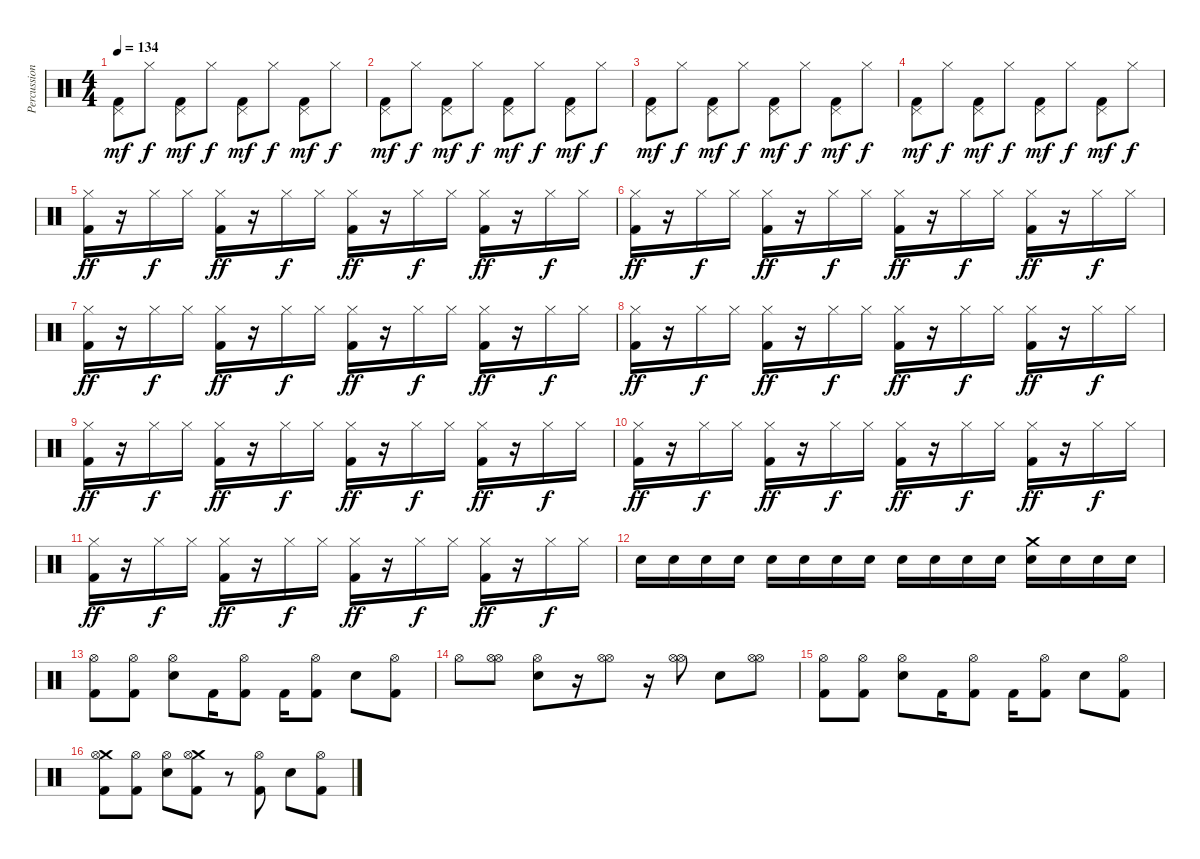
\track ("Percussion" "Percussion") {instrument percussion}
\staff {score}
\articulation defaults
\ts (4 4)
\tempo 134
\clef neutral
\ks c
("Kick (hit) 2" "Pedal Hi-Hat (hit)").8{dy mf} "Hi-Hat (closed)".8{dy f} ("Kick (hit) 2" "Pedal Hi-Hat (hit)").8{dy mf} "Hi-Hat (closed)".8{dy f} ("Kick (hit) 2" "Pedal Hi-Hat (hit)").8{dy mf} "Hi-Hat (closed)".8{dy f} ("Kick (hit) 2" "Pedal Hi-Hat (hit)").8{dy mf} "Hi-Hat (closed)".8{dy f} |
("Kick (hit) 2" "Pedal Hi-Hat (hit)").8{dy mf} "Hi-Hat (closed)".8{dy f} ("Kick (hit) 2" "Pedal Hi-Hat (hit)").8{dy mf} "Hi-Hat (closed)".8{dy f} ("Kick (hit) 2" "Pedal Hi-Hat (hit)").8{dy mf} "Hi-Hat (closed)".8{dy f} ("Kick (hit) 2" "Pedal Hi-Hat (hit)").8{dy mf} "Hi-Hat (closed)".8{dy f} |
("Kick (hit) 2" "Pedal Hi-Hat (hit)").8{dy mf} "Hi-Hat (closed)".8{dy f} ("Kick (hit) 2" "Pedal Hi-Hat (hit)").8{dy mf} "Hi-Hat (closed)".8{dy f} ("Kick (hit) 2" "Pedal Hi-Hat (hit)").8{dy mf} "Hi-Hat (closed)".8{dy f} ("Kick (hit) 2" "Pedal Hi-Hat (hit)").8{dy mf} "Hi-Hat (closed)".8{dy f} |
("Kick (hit) 2" "Pedal Hi-Hat (hit)").8{dy mf} "Hi-Hat (closed)".8{dy f} ("Kick (hit) 2" "Pedal Hi-Hat (hit)").8{dy mf} "Hi-Hat (closed)".8{dy f} ("Kick (hit) 2" "Pedal Hi-Hat (hit)").8{dy mf} "Hi-Hat (closed)".8{dy f} ("Kick (hit) 2" "Pedal Hi-Hat (hit)").8{dy mf} "Hi-Hat (closed)".8{dy f} |
("Kick (hit) 2" "Hi-Hat (closed)").16{dy ff} r.16 "Hi-Hat (closed)".16{dy f} "Hi-Hat (closed)".16 ("Kick (hit) 2" "Hi-Hat (closed)").16{dy ff} r.16 "Hi-Hat (closed)".16{dy f} "Hi-Hat (closed)".16 ("Kick (hit) 2" "Hi-Hat (closed)").16{dy ff} r.16 "Hi-Hat (closed)".16{dy f} "Hi-Hat (closed)".16 ("Kick (hit) 2" "Hi-Hat (closed)").16{dy ff} r.16 "Hi-Hat (closed)".16{dy f} "Hi-Hat (closed)".16 |
("Kick (hit) 2" "Hi-Hat (closed)").16{dy ff} r.16 "Hi-Hat (closed)".16{dy f} "Hi-Hat (closed)".16 ("Kick (hit) 2" "Hi-Hat (closed)").16{dy ff} r.16 "Hi-Hat (closed)".16{dy f} "Hi-Hat (closed)".16 ("Kick (hit) 2" "Hi-Hat (closed)").16{dy ff} r.16 "Hi-Hat (closed)".16{dy f} "Hi-Hat (closed)".16 ("Kick (hit) 2" "Hi-Hat (closed)").16{dy ff} r.16 "Hi-Hat (closed)".16{dy f} "Hi-Hat (closed)".16 |
("Kick (hit) 2" "Hi-Hat (closed)").16{dy ff} r.16 "Hi-Hat (closed)".16{dy f} "Hi-Hat (closed)".16 ("Kick (hit) 2" "Hi-Hat (closed)").16{dy ff} r.16 "Hi-Hat (closed)".16{dy f} "Hi-Hat (closed)".16 ("Kick (hit) 2" "Hi-Hat (closed)").16{dy ff} r.16 "Hi-Hat (closed)".16{dy f} "Hi-Hat (closed)".16 ("Kick (hit) 2" "Hi-Hat (closed)").16{dy ff} r.16 "Hi-Hat (closed)".16{dy f} "Hi-Hat (closed)".16 |
("Kick (hit) 2" "Hi-Hat (closed)").16{dy ff} r.16 "Hi-Hat (closed)".16{dy f} "Hi-Hat (closed)".16 ("Kick (hit) 2" "Hi-Hat (closed)").16{dy ff} r.16 "Hi-Hat (closed)".16{dy f} "Hi-Hat (closed)".16 ("Kick (hit) 2" "Hi-Hat (closed)").16{dy ff} r.16 "Hi-Hat (closed)".16{dy f} "Hi-Hat (closed)".16 ("Kick (hit) 2" "Hi-Hat (closed)").16{dy ff} r.16 "Hi-Hat (closed)".16{dy f} "Hi-Hat (closed)".16 |
("Kick (hit) 2" "Hi-Hat (closed)").16{dy ff} r.16 "Hi-Hat (closed)".16{dy f} "Hi-Hat (closed)".16 ("Kick (hit) 2" "Hi-Hat (closed)").16{dy ff} r.16 "Hi-Hat (closed)".16{dy f} "Hi-Hat (closed)".16 ("Kick (hit) 2" "Hi-Hat (closed)").16{dy ff} r.16 "Hi-Hat (closed)".16{dy f} "Hi-Hat (closed)".16 ("Kick (hit) 2" "Hi-Hat (closed)").16{dy ff} r.16 "Hi-Hat (closed)".16{dy f} "Hi-Hat (closed)".16 |
("Kick (hit) 2" "Hi-Hat (closed)").16{dy ff} r.16 "Hi-Hat (closed)".16{dy f} "Hi-Hat (closed)".16 ("Kick (hit) 2" "Hi-Hat (closed)").16{dy ff} r.16 "Hi-Hat (closed)".16{dy f} "Hi-Hat (closed)".16 ("Kick (hit) 2" "Hi-Hat (closed)").16{dy ff} r.16 "Hi-Hat (closed)".16{dy f} "Hi-Hat (closed)".16 ("Kick (hit) 2" "Hi-Hat (closed)").16{dy ff} r.16 "Hi-Hat (closed)".16{dy f} "Hi-Hat (closed)".16 |
("Kick (hit) 2" "Hi-Hat (closed)").16{dy ff} r.16 "Hi-Hat (closed)".16{dy f} "Hi-Hat (closed)".16 ("Kick (hit) 2" "Hi-Hat (closed)").16{dy ff} r.16 "Hi-Hat (closed)".16{dy f} "Hi-Hat (closed)".16 ("Kick (hit) 2" "Hi-Hat (closed)").16{dy ff} r.16 "Hi-Hat (closed)".16{dy f} "Hi-Hat (closed)".16 ("Kick (hit) 2" "Hi-Hat (closed)").16{dy ff} r.16 "Hi-Hat (closed)".16{dy f} "Hi-Hat (closed)".16 |
"Electric Snare (hit)".16 "Electric Snare (hit)".16 "Electric Snare (hit)".16 "Electric Snare (hit)".16 "Electric Snare (hit)".16 "Electric Snare (hit)".16 "Electric Snare (hit)".16 "Electric Snare (hit)".16 "Electric Snare (hit)".16 "Electric Snare (hit)".16 "Electric Snare (hit)".16 "Electric Snare (hit)".16 ("Crash medium (hit)" "Electric Snare (hit)").16 "Electric Snare (hit)".16 "Electric Snare (hit)".16 "Electric Snare (hit)".16 |
("Kick (hit) 2" "Hi-Hat (open)").8 ("Kick (hit) 2" "Hi-Hat (open)").8 ("Electric Snare (hit)" "Hi-Hat (open)").8 "Kick (hit) 2".16 ("Kick (hit) 2" "Hi-Hat (open)").8 "Kick (hit) 2".16 ("Kick (hit) 2" "Hi-Hat (open)").8 "Electric Snare (hit)".8 ("Kick (hit) 2" "Hi-Hat (open)").8 |
"Hi-Hat (open)".8 ("Hi-Hat (open)" "Hi-Hat (open)").8 ("Electric Snare (hit)" "Hi-Hat (open)").8 r.16 ("Hi-Hat (open)" "Hi-Hat (open)").8 r.16 ("Hi-Hat (open)" "Hi-Hat (open)").8 "Electric Snare (hit)".8 ("Hi-Hat (open)" "Hi-Hat (open)").8 |
("Kick (hit) 2" "Hi-Hat (open)").8 ("Kick (hit) 2" "Hi-Hat (open)").8 ("Electric Snare (hit)" "Hi-Hat (open)").8 "Kick (hit) 2".16 ("Kick (hit) 2" "Hi-Hat (open)").8 "Kick (hit) 2".16 ("Kick (hit) 2" "Hi-Hat (open)").8 "Electric Snare (hit)".8 ("Kick (hit) 2" "Hi-Hat (open)").8 |
("Kick (hit) 2" "Crash medium (hit)" "Hi-Hat (open)").8 ("Kick (hit) 2" "Hi-Hat (open)").8 ("Electric Snare (hit)" "Hi-Hat (open)").8 ("Kick (hit) 2" "Crash medium (hit)" "Hi-Hat (open)").8 r.8 ("Kick (hit) 2" "Hi-Hat (open)").8 "Electric Snare (hit)".8 ("Kick (hit) 2" "Hi-Hat (open)").8
